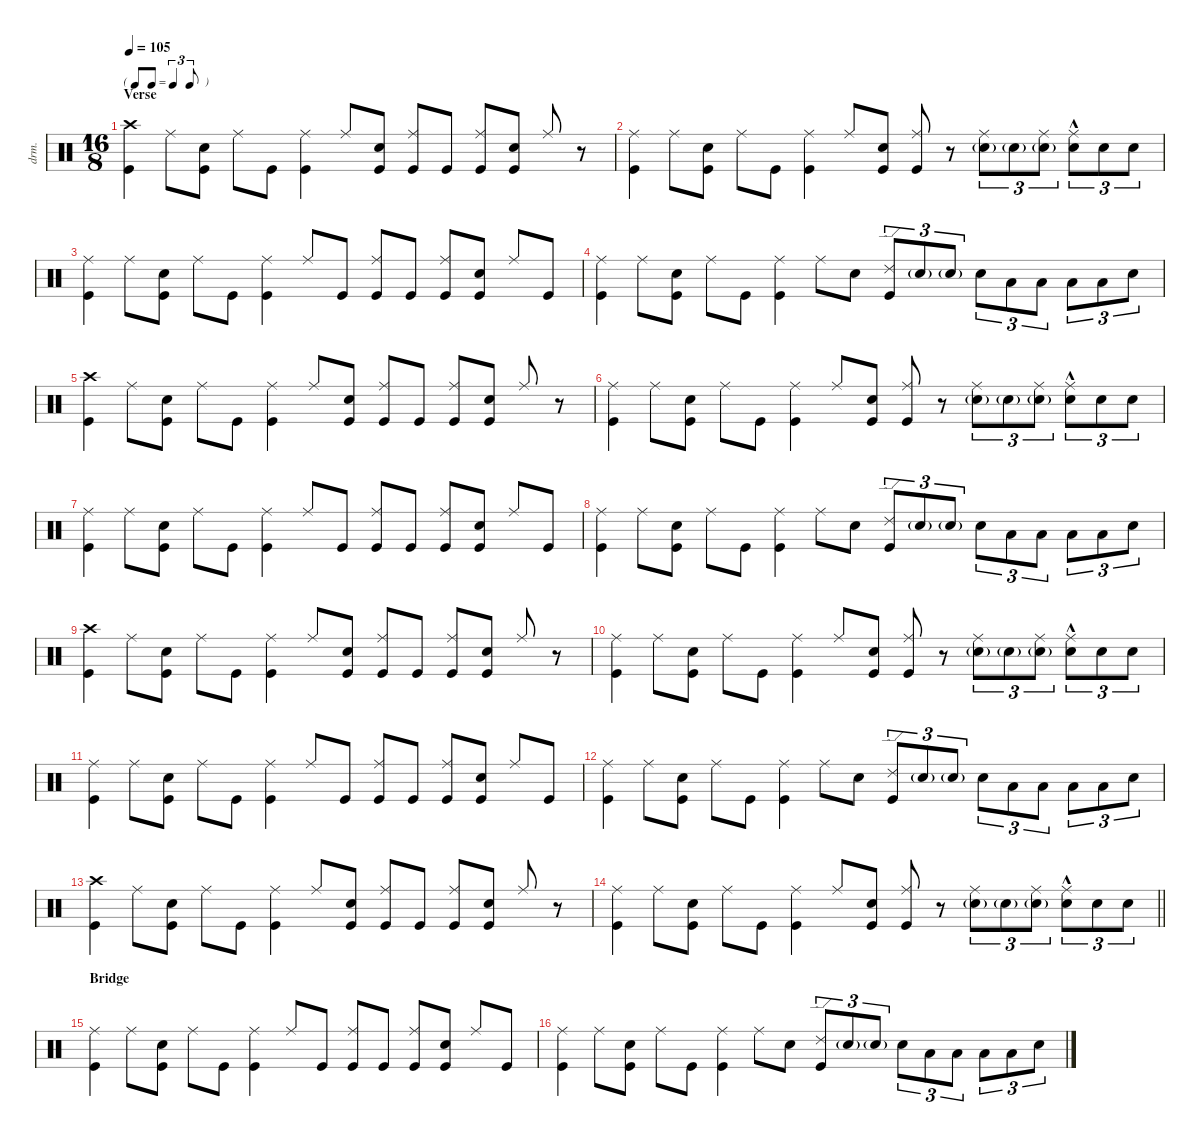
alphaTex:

\defaultSystemsLayout 4
\hideDynamics
\bracketExtendMode nobrackets
\otherSystemsTrackNameOrientation horizontal
\track ("Percussion" "drm.") {instrument percussion}
\staff {score}
\articulation defaults
\ts (16 8)
\tf triplet8th
\section ("" "Verse")
\tempo 105
\clef neutral
\ks c
("Crash high (hit)" "Kick (hit)").4{dy f beam Down} "Ride (middle)".8{beam Down} ("Snare (hit) 2" "Kick (hit)").8{beam Down} "Ride (middle)".8{beam Down} "Kick (hit)".8{beam Down} ("Ride (middle)" "Kick (hit)").4{beam Down} "Ride (middle)".8{beam Up} ("Snare (hit) 2" "Kick (hit)").8{beam Up} ("Ride (middle)" "Kick (hit)").8{beam Up} "Kick (hit)".8{beam Up} ("Ride (middle)" "Kick (hit)").8{beam Up} ("Snare (hit) 2" "Kick (hit)").8{beam Up} "Ride (middle)".8{beam Up} r.8{beam Up} |
("Ride (middle)" "Kick (hit)").4{beam Down} "Ride (middle)".8{beam Down} ("Snare (hit) 2" "Kick (hit)").8{beam Down} "Ride (middle)".8{beam Down} "Kick (hit)".8{beam Down} ("Ride (middle)" "Kick (hit)").4{beam Down} "Ride (middle)".8{beam Up} ("Snare (hit) 2" "Kick (hit)").8{beam Up} ("Ride (middle)" "Kick (hit)").8{beam Up} r.8{beam Up} ("Ride (middle)" "Snare (hit) 2"{g}).8{tu (3 2) beam Down} "Snare (hit) 2"{g}.8{tu (3 2) dy mf beam Down} ("Ride (middle)" "Snare (hit) 2"{g}).8{tu (3 2) dy f beam Down} ("Ride (middle)"{hac} "Snare (hit) 2").8{tu (3 2) beam Down} "Snare (hit) 2".8{tu (3 2) beam Down} "Snare (hit) 2".8{tu (3 2) beam Down} |
("Ride (middle)" "Kick (hit)").4{beam Down} "Ride (middle)".8{beam Down} ("Snare (hit) 2" "Kick (hit)").8{beam Down} "Ride (middle)".8{beam Down} "Kick (hit)".8{beam Down} ("Ride (middle)" "Kick (hit)").4{beam Down} "Ride (middle)".8{beam Up} "Kick (hit)".8{beam Up} ("Ride (middle)" "Kick (hit)").8{beam Up} "Kick (hit)".8{beam Up} ("Ride (middle)" "Kick (hit)").8{beam Up} ("Snare (hit) 2" "Kick (hit)").8{beam Up} "Ride (middle)".8{beam Up} "Kick (hit)".8{beam Up} |
("Ride (middle)" "Kick (hit)").4{beam Down} "Ride (middle)".8{beam Down} ("Snare (hit) 2" "Kick (hit)").8{beam Down} "Ride (middle)".8{beam Down} "Kick (hit)".8{beam Down} ("Ride (middle)" "Kick (hit)").4{beam Down} "Ride (middle)".8{beam Down} "Snare (hit) 2".8{beam Down} ("Ride (edge) 2" "Kick (hit)").8{tu (3 2) beam Up} "Snare (hit) 2"{g}.8{tu (3 2) dy mf beam Up} "Snare (hit) 2"{g}.8{tu (3 2) beam Up} "Snare (hit) 2".8{tu (3 2) dy f beam Down} "Low Floor Tom (hit)".8{tu (3 2) beam Down} "Low Floor Tom (hit)".8{tu (3 2) beam Down} "Low Floor Tom (hit)".8{tu (3 2) beam Down} "Low Floor Tom (hit)".8{tu (3 2) beam Down} "Snare (hit) 2".8{tu (3 2) beam Down} |
("Crash high (hit)" "Kick (hit)").4{beam Down} "Ride (middle)".8{beam Down} ("Snare (hit) 2" "Kick (hit)").8{beam Down} "Ride (middle)".8{beam Down} "Kick (hit)".8{beam Down} ("Ride (middle)" "Kick (hit)").4{beam Down} "Ride (middle)".8{beam Up} ("Snare (hit) 2" "Kick (hit)").8{beam Up} ("Ride (middle)" "Kick (hit)").8{beam Up} "Kick (hit)".8{beam Up} ("Ride (middle)" "Kick (hit)").8{beam Up} ("Snare (hit) 2" "Kick (hit)").8{beam Up} "Ride (middle)".8{beam Up} r.8{beam Up} |
("Ride (middle)" "Kick (hit)").4{beam Down} "Ride (middle)".8{beam Down} ("Snare (hit) 2" "Kick (hit)").8{beam Down} "Ride (middle)".8{beam Down} "Kick (hit)".8{beam Down} ("Ride (middle)" "Kick (hit)").4{beam Down} "Ride (middle)".8{beam Up} ("Snare (hit) 2" "Kick (hit)").8{beam Up} ("Ride (middle)" "Kick (hit)").8{beam Up} r.8{beam Up} ("Ride (middle)" "Snare (hit) 2"{g}).8{tu (3 2) beam Down} "Snare (hit) 2"{g}.8{tu (3 2) dy mf beam Down} ("Ride (middle)" "Snare (hit) 2"{g}).8{tu (3 2) dy f beam Down} ("Ride (middle)"{hac} "Snare (hit) 2").8{tu (3 2) beam Down} "Snare (hit) 2".8{tu (3 2) beam Down} "Snare (hit) 2".8{tu (3 2) beam Down} |
("Ride (middle)" "Kick (hit)").4{beam Down} "Ride (middle)".8{beam Down} ("Snare (hit) 2" "Kick (hit)").8{beam Down} "Ride (middle)".8{beam Down} "Kick (hit)".8{beam Down} ("Ride (middle)" "Kick (hit)").4{beam Down} "Ride (middle)".8{beam Up} "Kick (hit)".8{beam Up} ("Ride (middle)" "Kick (hit)").8{beam Up} "Kick (hit)".8{beam Up} ("Ride (middle)" "Kick (hit)").8{beam Up} ("Snare (hit) 2" "Kick (hit)").8{beam Up} "Ride (middle)".8{beam Up} "Kick (hit)".8{beam Up} |
("Ride (middle)" "Kick (hit)").4{beam Down} "Ride (middle)".8{beam Down} ("Snare (hit) 2" "Kick (hit)").8{beam Down} "Ride (middle)".8{beam Down} "Kick (hit)".8{beam Down} ("Ride (middle)" "Kick (hit)").4{beam Down} "Ride (middle)".8{beam Down} "Snare (hit) 2".8{beam Down} ("Ride (edge) 2" "Kick (hit)").8{tu (3 2) beam Up} "Snare (hit) 2"{g}.8{tu (3 2) dy mf beam Up} "Snare (hit) 2"{g}.8{tu (3 2) beam Up} "Snare (hit) 2".8{tu (3 2) dy f beam Down} "Low Floor Tom (hit)".8{tu (3 2) beam Down} "Low Floor Tom (hit)".8{tu (3 2) beam Down} "Low Floor Tom (hit)".8{tu (3 2) beam Down} "Low Floor Tom (hit)".8{tu (3 2) beam Down} "Snare (hit) 2".8{tu (3 2) beam Down} |
("Crash high (hit)" "Kick (hit)").4{beam Down} "Ride (middle)".8{beam Down} ("Snare (hit) 2" "Kick (hit)").8{beam Down} "Ride (middle)".8{beam Down} "Kick (hit)".8{beam Down} ("Ride (middle)" "Kick (hit)").4{beam Down} "Ride (middle)".8{beam Up} ("Snare (hit) 2" "Kick (hit)").8{beam Up} ("Ride (middle)" "Kick (hit)").8{beam Up} "Kick (hit)".8{beam Up} ("Ride (middle)" "Kick (hit)").8{beam Up} ("Snare (hit) 2" "Kick (hit)").8{beam Up} "Ride (middle)".8{beam Up} r.8{beam Up} |
("Ride (middle)" "Kick (hit)").4{beam Down} "Ride (middle)".8{beam Down} ("Snare (hit) 2" "Kick (hit)").8{beam Down} "Ride (middle)".8{beam Down} "Kick (hit)".8{beam Down} ("Ride (middle)" "Kick (hit)").4{beam Down} "Ride (middle)".8{beam Up} ("Snare (hit) 2" "Kick (hit)").8{beam Up} ("Ride (middle)" "Kick (hit)").8{beam Up} r.8{beam Up} ("Ride (middle)" "Snare (hit) 2"{g}).8{tu (3 2) beam Down} "Snare (hit) 2"{g}.8{tu (3 2) dy mf beam Down} ("Ride (middle)" "Snare (hit) 2"{g}).8{tu (3 2) dy f beam Down} ("Ride (middle)"{hac} "Snare (hit) 2").8{tu (3 2) beam Down} "Snare (hit) 2".8{tu (3 2) beam Down} "Snare (hit) 2".8{tu (3 2) beam Down} |
("Ride (middle)" "Kick (hit)").4{beam Down} "Ride (middle)".8{beam Down} ("Snare (hit) 2" "Kick (hit)").8{beam Down} "Ride (middle)".8{beam Down} "Kick (hit)".8{beam Down} ("Ride (middle)" "Kick (hit)").4{beam Down} "Ride (middle)".8{beam Up} "Kick (hit)".8{beam Up} ("Ride (middle)" "Kick (hit)").8{beam Up} "Kick (hit)".8{beam Up} ("Ride (middle)" "Kick (hit)").8{beam Up} ("Snare (hit) 2" "Kick (hit)").8{beam Up} "Ride (middle)".8{beam Up} "Kick (hit)".8{beam Up} |
("Ride (middle)" "Kick (hit)").4{beam Down} "Ride (middle)".8{beam Down} ("Snare (hit) 2" "Kick (hit)").8{beam Down} "Ride (middle)".8{beam Down} "Kick (hit)".8{beam Down} ("Ride (middle)" "Kick (hit)").4{beam Down} "Ride (middle)".8{beam Down} "Snare (hit) 2".8{beam Down} ("Ride (edge) 2" "Kick (hit)").8{tu (3 2) beam Up} "Snare (hit) 2"{g}.8{tu (3 2) dy mf beam Up} "Snare (hit) 2"{g}.8{tu (3 2) beam Up} "Snare (hit) 2".8{tu (3 2) dy f beam Down} "Low Floor Tom (hit)".8{tu (3 2) beam Down} "Low Floor Tom (hit)".8{tu (3 2) beam Down} "Low Floor Tom (hit)".8{tu (3 2) beam Down} "Low Floor Tom (hit)".8{tu (3 2) beam Down} "Snare (hit) 2".8{tu (3 2) beam Down} |
("Crash high (hit)" "Kick (hit)").4{beam Down} "Ride (middle)".8{beam Down} ("Snare (hit) 2" "Kick (hit)").8{beam Down} "Ride (middle)".8{beam Down} "Kick (hit)".8{beam Down} ("Ride (middle)" "Kick (hit)").4{beam Down} "Ride (middle)".8{beam Up} ("Snare (hit) 2" "Kick (hit)").8{beam Up} ("Ride (middle)" "Kick (hit)").8{beam Up} "Kick (hit)".8{beam Up} ("Ride (middle)" "Kick (hit)").8{beam Up} ("Snare (hit) 2" "Kick (hit)").8{beam Up} "Ride (middle)".8{beam Up} r.8{beam Up} |
\barLineRight lightlight
("Ride (middle)" "Kick (hit)").4{beam Down} "Ride (middle)".8{beam Down} ("Snare (hit) 2" "Kick (hit)").8{beam Down} "Ride (middle)".8{beam Down} "Kick (hit)".8{beam Down} ("Ride (middle)" "Kick (hit)").4{beam Down} "Ride (middle)".8{beam Up} ("Snare (hit) 2" "Kick (hit)").8{beam Up} ("Ride (middle)" "Kick (hit)").8{beam Up} r.8{beam Up} ("Ride (middle)" "Snare (hit) 2"{g}).8{tu (3 2) beam Down} "Snare (hit) 2"{g}.8{tu (3 2) dy mf beam Down} ("Ride (middle)" "Snare (hit) 2"{g}).8{tu (3 2) dy f beam Down} ("Ride (middle)"{hac} "Snare (hit) 2").8{tu (3 2) beam Down} "Snare (hit) 2".8{tu (3 2) beam Down} "Snare (hit) 2".8{tu (3 2) beam Down} |
\section ("" "Bridge")
("Ride (middle)" "Kick (hit)").4{beam Down} "Ride (middle)".8{beam Down} ("Snare (hit) 2" "Kick (hit)").8{beam Down} "Ride (middle)".8{beam Down} "Kick (hit)".8{beam Down} ("Ride (middle)" "Kick (hit)").4{beam Down} "Ride (middle)".8{beam Up} "Kick (hit)".8{beam Up} ("Ride (middle)" "Kick (hit)").8{beam Up} "Kick (hit)".8{beam Up} ("Ride (middle)" "Kick (hit)").8{beam Up} ("Snare (hit) 2" "Kick (hit)").8{beam Up} "Ride (middle)".8{beam Up} "Kick (hit)".8{beam Up} |
("Ride (middle)" "Kick (hit)").4{beam Down} "Ride (middle)".8{beam Down} ("Snare (hit) 2" "Kick (hit)").8{beam Down} "Ride (middle)".8{beam Down} "Kick (hit)".8{beam Down} ("Ride (middle)" "Kick (hit)").4{beam Down} "Ride (middle)".8{beam Down} "Snare (hit) 2".8{beam Down} ("Ride (edge) 2" "Kick (hit)").8{tu (3 2) beam Up} "Snare (hit) 2"{g}.8{tu (3 2) dy mf beam Up} "Snare (hit) 2"{g}.8{tu (3 2) beam Up} "Snare (hit) 2".8{tu (3 2) dy f beam Down} "Low Floor Tom (hit)".8{tu (3 2) beam Down} "Low Floor Tom (hit)".8{tu (3 2) beam Down} "Low Floor Tom (hit)".8{tu (3 2) beam Down} "Low Floor Tom (hit)".8{tu (3 2) beam Down} "Snare (hit) 2".8{tu (3 2) beam Down}
